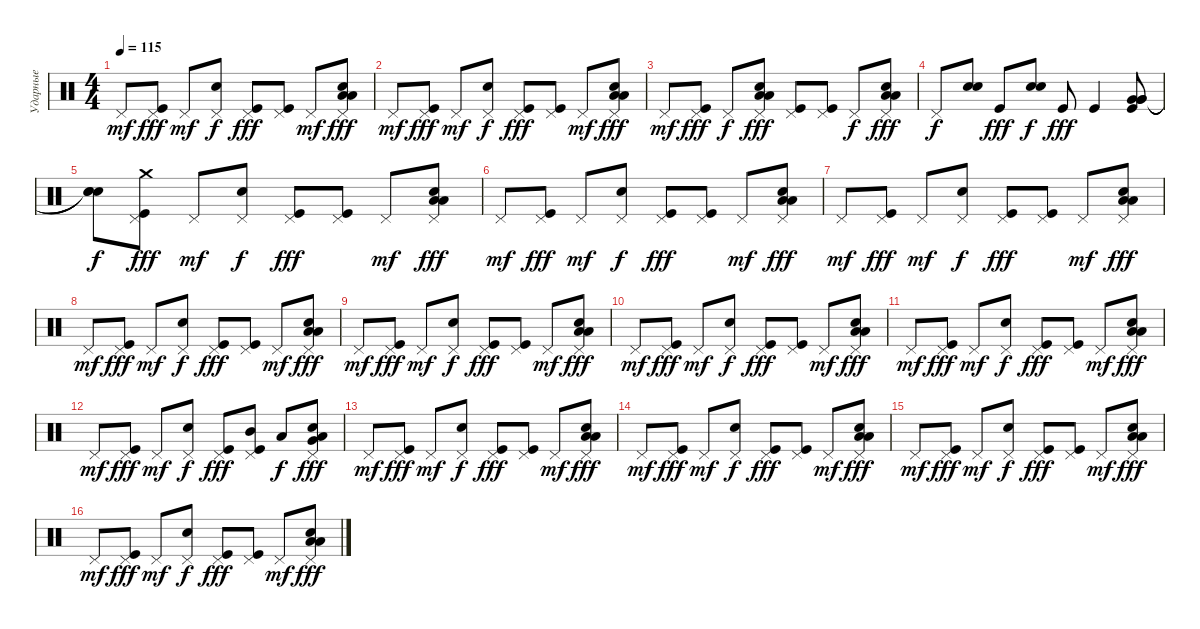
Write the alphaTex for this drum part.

\track ("Ударные" "Ударные") {instrument percussion}
\staff {score}
\articulation defaults
\ts (4 4)
\tempo 115
\clef neutral
\ks c "Pedal Hi-Hat (hit)".8{dy mf}
("Pedal Hi-Hat (hit)" "Kick (hit)").8{dy fff} "Pedal Hi-Hat (hit)".8{dy mf} ("Pedal Hi-Hat (hit)" "Electric Snare (hit)").8{dy f} ("Pedal Hi-Hat (hit)" "Kick (hit)").8{dy fff} ("Pedal Hi-Hat (hit)" "Kick (hit)").8 "Pedal Hi-Hat (hit)".8{dy mf} ("Pedal Hi-Hat (hit)" "Low Tom (hit)" "Low Tom (hit)" "Electric Snare (hit)").8{dy fff} |
"Pedal Hi-Hat (hit)".8{dy mf} ("Pedal Hi-Hat (hit)" "Kick (hit)").8{dy fff} "Pedal Hi-Hat (hit)".8{dy mf} ("Pedal Hi-Hat (hit)" "Electric Snare (hit)").8{dy f} ("Pedal Hi-Hat (hit)" "Kick (hit)").8{dy fff} ("Pedal Hi-Hat (hit)" "Kick (hit)").8 "Pedal Hi-Hat (hit)".8{dy mf} ("Pedal Hi-Hat (hit)" "Low Tom (hit)" "Low Tom (hit)" "Electric Snare (hit)").8{dy fff} |
"Pedal Hi-Hat (hit)".8{dy mf} ("Pedal Hi-Hat (hit)" "Kick (hit)").8{dy fff} "Pedal Hi-Hat (hit)".8{dy f} ("Pedal Hi-Hat (hit)" "Low Tom (hit)" "Low Tom (hit)" "Electric Snare (hit)").8{dy fff} ("Pedal Hi-Hat (hit)" "Kick (hit)").8 ("Pedal Hi-Hat (hit)" "Kick (hit)").8 "Pedal Hi-Hat (hit)".8{dy f} ("Pedal Hi-Hat (hit)" "Low Tom (hit)" "Low Tom (hit)" "Electric Snare (hit)").8{dy fff} |
"Pedal Hi-Hat (hit)".8{dy f} ("Electric Snare (hit)" "Electric Snare (hit)").8 "Kick (hit)".8{dy fff} ("Electric Snare (hit)" "Electric Snare (hit)").8{dy f} "Kick (hit)".8{dy fff} "Kick (hit)".4 ("Very Low Tom (hit)" "Very Low Tom (hit)" "Very Low Tom (hit)" "Kick (hit)").8 |
("Snare (hit)"{t} "Snare (hit)"{t} "Snare (hit)"{t}).8{dy f} ("Pedal Hi-Hat (hit)" "Kick (hit)" "Crash medium (hit)").8{dy fff} "Pedal Hi-Hat (hit)".8{dy mf} ("Pedal Hi-Hat (hit)" "Electric Snare (hit)").8{dy f} ("Pedal Hi-Hat (hit)" "Kick (hit)").8{dy fff} ("Pedal Hi-Hat (hit)" "Kick (hit)").8 "Pedal Hi-Hat (hit)".8{dy mf} ("Pedal Hi-Hat (hit)" "Low Tom (hit)" "Low Tom (hit)" "Electric Snare (hit)").8{dy fff} |
"Pedal Hi-Hat (hit)".8{dy mf} ("Pedal Hi-Hat (hit)" "Kick (hit)").8{dy fff} "Pedal Hi-Hat (hit)".8{dy mf} ("Pedal Hi-Hat (hit)" "Electric Snare (hit)").8{dy f} ("Pedal Hi-Hat (hit)" "Kick (hit)").8{dy fff} ("Pedal Hi-Hat (hit)" "Kick (hit)").8 "Pedal Hi-Hat (hit)".8{dy mf} ("Pedal Hi-Hat (hit)" "Low Tom (hit)" "Low Tom (hit)" "Electric Snare (hit)").8{dy fff} |
"Pedal Hi-Hat (hit)".8{dy mf} ("Pedal Hi-Hat (hit)" "Kick (hit)").8{dy fff} "Pedal Hi-Hat (hit)".8{dy mf} ("Pedal Hi-Hat (hit)" "Electric Snare (hit)").8{dy f} ("Pedal Hi-Hat (hit)" "Kick (hit)").8{dy fff} ("Pedal Hi-Hat (hit)" "Kick (hit)").8 "Pedal Hi-Hat (hit)".8{dy mf} ("Pedal Hi-Hat (hit)" "Low Tom (hit)" "Low Tom (hit)" "Electric Snare (hit)").8{dy fff} |
"Pedal Hi-Hat (hit)".8{dy mf} ("Pedal Hi-Hat (hit)" "Kick (hit)").8{dy fff} "Pedal Hi-Hat (hit)".8{dy mf} ("Pedal Hi-Hat (hit)" "Electric Snare (hit)").8{dy f} ("Pedal Hi-Hat (hit)" "Kick (hit)").8{dy fff} ("Pedal Hi-Hat (hit)" "Kick (hit)").8 "Pedal Hi-Hat (hit)".8{dy mf} ("Pedal Hi-Hat (hit)" "Low Tom (hit)" "Low Tom (hit)" "Electric Snare (hit)").8{dy fff} |
"Pedal Hi-Hat (hit)".8{dy mf} ("Pedal Hi-Hat (hit)" "Kick (hit)").8{dy fff} "Pedal Hi-Hat (hit)".8{dy mf} ("Pedal Hi-Hat (hit)" "Electric Snare (hit)").8{dy f} ("Pedal Hi-Hat (hit)" "Kick (hit)").8{dy fff} ("Pedal Hi-Hat (hit)" "Kick (hit)").8 "Pedal Hi-Hat (hit)".8{dy mf} ("Pedal Hi-Hat (hit)" "Low Tom (hit)" "Low Tom (hit)" "Electric Snare (hit)").8{dy fff} |
"Pedal Hi-Hat (hit)".8{dy mf} ("Pedal Hi-Hat (hit)" "Kick (hit)").8{dy fff} "Pedal Hi-Hat (hit)".8{dy mf} ("Pedal Hi-Hat (hit)" "Electric Snare (hit)").8{dy f} ("Pedal Hi-Hat (hit)" "Kick (hit)").8{dy fff} ("Pedal Hi-Hat (hit)" "Kick (hit)").8 "Pedal Hi-Hat (hit)".8{dy mf} ("Pedal Hi-Hat (hit)" "Low Tom (hit)" "Low Tom (hit)" "Electric Snare (hit)").8{dy fff} |
"Pedal Hi-Hat (hit)".8{dy mf} ("Pedal Hi-Hat (hit)" "Kick (hit)").8{dy fff} "Pedal Hi-Hat (hit)".8{dy mf} ("Pedal Hi-Hat (hit)" "Electric Snare (hit)").8{dy f} ("Pedal Hi-Hat (hit)" "Kick (hit)").8{dy fff} ("Pedal Hi-Hat (hit)" "Kick (hit)").8 "Pedal Hi-Hat (hit)".8{dy mf} ("Pedal Hi-Hat (hit)" "Low Tom (hit)" "Low Tom (hit)" "Electric Snare (hit)").8{dy fff} |
"Pedal Hi-Hat (hit)".8{dy mf} ("Pedal Hi-Hat (hit)" "Kick (hit)").8{dy fff} "Pedal Hi-Hat (hit)".8{dy mf} ("Pedal Hi-Hat (hit)" "Electric Snare (hit)").8{dy f} ("Pedal Hi-Hat (hit)" "Kick (hit)").8{dy fff} ("Pedal Hi-Hat (hit)" "Kick (hit)" "Mid Tom (hit)").8 "Low Tom (hit)".8{dy f} ("Pedal Hi-Hat (hit)" "Very Low Tom (hit)" "Low Tom (hit)" "Electric Snare (hit)").8{dy fff} |
"Pedal Hi-Hat (hit)".8{dy mf} ("Pedal Hi-Hat (hit)" "Kick (hit)").8{dy fff} "Pedal Hi-Hat (hit)".8{dy mf} ("Pedal Hi-Hat (hit)" "Electric Snare (hit)").8{dy f} ("Pedal Hi-Hat (hit)" "Kick (hit)").8{dy fff} ("Pedal Hi-Hat (hit)" "Kick (hit)").8 "Pedal Hi-Hat (hit)".8{dy mf} ("Pedal Hi-Hat (hit)" "Low Tom (hit)" "Low Tom (hit)" "Electric Snare (hit)").8{dy fff} |
"Pedal Hi-Hat (hit)".8{dy mf} ("Pedal Hi-Hat (hit)" "Kick (hit)").8{dy fff} "Pedal Hi-Hat (hit)".8{dy mf} ("Pedal Hi-Hat (hit)" "Electric Snare (hit)").8{dy f} ("Pedal Hi-Hat (hit)" "Kick (hit)").8{dy fff} ("Pedal Hi-Hat (hit)" "Kick (hit)").8 "Pedal Hi-Hat (hit)".8{dy mf} ("Pedal Hi-Hat (hit)" "Low Tom (hit)" "Low Tom (hit)" "Electric Snare (hit)").8{dy fff} |
"Pedal Hi-Hat (hit)".8{dy mf} ("Pedal Hi-Hat (hit)" "Kick (hit)").8{dy fff} "Pedal Hi-Hat (hit)".8{dy mf} ("Pedal Hi-Hat (hit)" "Electric Snare (hit)").8{dy f} ("Pedal Hi-Hat (hit)" "Kick (hit)").8{dy fff} ("Pedal Hi-Hat (hit)" "Kick (hit)").8 "Pedal Hi-Hat (hit)".8{dy mf} ("Pedal Hi-Hat (hit)" "Low Tom (hit)" "Low Tom (hit)" "Electric Snare (hit)").8{dy fff} |
"Pedal Hi-Hat (hit)".8{dy mf} ("Pedal Hi-Hat (hit)" "Kick (hit)").8{dy fff} "Pedal Hi-Hat (hit)".8{dy mf} ("Pedal Hi-Hat (hit)" "Electric Snare (hit)").8{dy f} ("Pedal Hi-Hat (hit)" "Kick (hit)").8{dy fff} ("Pedal Hi-Hat (hit)" "Kick (hit)").8 "Pedal Hi-Hat (hit)".8{dy mf} ("Pedal Hi-Hat (hit)" "Low Tom (hit)" "Low Tom (hit)" "Electric Snare (hit)").8{dy fff}
